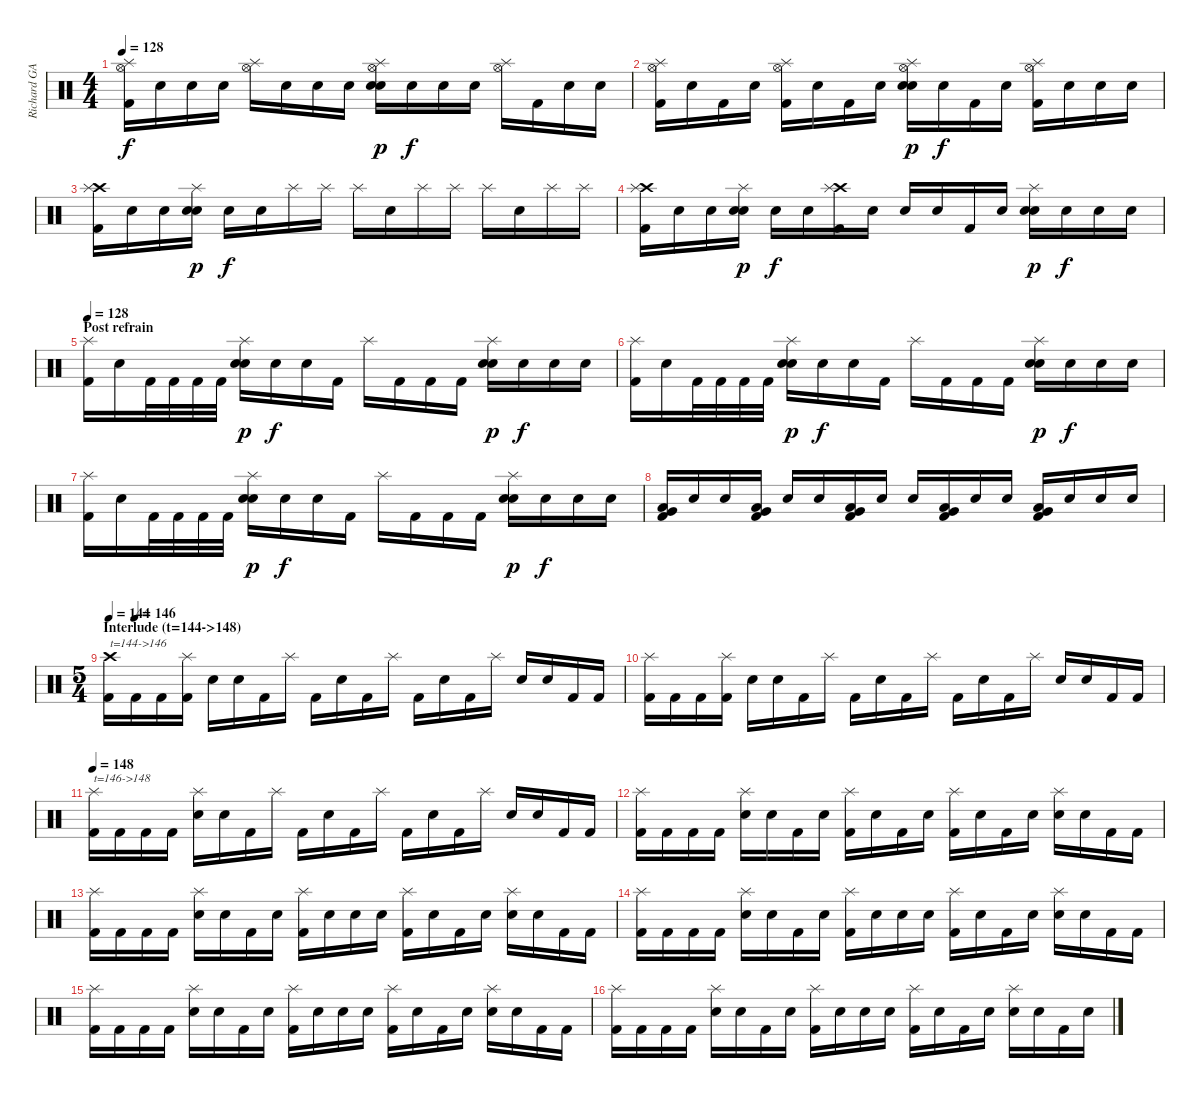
\track ("Richard GAMBA - Batterie" "Richard GA") {instrument percussion}
\staff {score}
\articulation defaults
\ts (4 4)
\tempo 128
\clef neutral
\ks c
("Hi-Hat (open)" "Splash (hit)" "Kick (hit) 2").16{dy f} "Snare (hit)".16 "Snare (hit)".16 "Snare (hit)".16 ("Hi-Hat (open)" "Splash (hit)").16 "Snare (hit)".16 "Snare (hit)".16 "Snare (hit)".16 ("Hi-Hat (open)" "Splash (hit)" "Electric Snare (hit)" "Snare (hit) 2").16{dy p} "Snare (hit)".16{dy f} "Snare (hit)".16 "Snare (hit)".16 ("Hi-Hat (open)" "Splash (hit)").16 "Kick (hit) 2".16 "Snare (hit)".16 "Snare (hit)".16 |
("Hi-Hat (open)" "Splash (hit)" "Kick (hit) 2").16 "Snare (hit)".16 "Kick (hit) 2".16 "Snare (hit)".16 ("Hi-Hat (open)" "Splash (hit)" "Kick (hit) 2").16 "Snare (hit)".16 "Kick (hit) 2".16 "Snare (hit)".16 ("Hi-Hat (open)" "Splash (hit)" "Electric Snare (hit)" "Snare (hit) 2").16{dy p} "Snare (hit)".16{dy f} "Kick (hit) 2".16 "Snare (hit)".16 ("Hi-Hat (open)" "Splash (hit)" "Kick (hit) 2").16 "Snare (hit)".16 "Snare (hit)".16 "Snare (hit)".16 |
("Crash high (hit)" "Splash (hit)" "Kick (hit) 2").16 "Snare (hit)".16 "Snare (hit)".16 ("Splash (hit)" "Electric Snare (hit)" "Snare (hit) 2").16{dy p} "Snare (hit)".16{dy f} "Snare (hit)".16 "Splash (hit)".16 "Splash (hit)".16 "Splash (hit)".16 "Snare (hit)".16 "Splash (hit)".16 "Splash (hit)".16 "Splash (hit)".16 "Snare (hit)".16 "Splash (hit)".16 "Splash (hit)".16 |
("Crash high (hit)" "Splash (hit)" "Kick (hit) 2").16 "Snare (hit)".16 "Snare (hit)".16 ("Splash (hit)" "Electric Snare (hit)" "Snare (hit) 2").16{dy p} "Snare (hit)".16{dy f} "Snare (hit)".16 ("Crash high (hit)" "Splash (hit)" "Kick (hit) 2").16 "Snare (hit)".16 "Snare (hit)".16 "Snare (hit)".16 "Kick (hit) 2".16 "Snare (hit)".16 ("Splash (hit)" "Electric Snare (hit)" "Snare (hit) 2").16{dy p} "Snare (hit)".16{dy f} "Snare (hit)".16 "Snare (hit)".16 |
\section ("" "Post refrain")
\tempo 128
("Splash (hit)" "Kick (hit) 2").16{balance 8} "Snare (hit)".16 "Kick (hit) 2".32 "Kick (hit) 2".32 "Kick (hit) 2".32 "Kick (hit) 2".32 ("Splash (hit)" "Electric Snare (hit)" "Snare (hit) 2").16{dy p} "Snare (hit)".16{dy f} "Snare (hit)".16 "Kick (hit) 2".16 "Splash (hit)".16 "Kick (hit) 2".16 "Kick (hit) 2".16 "Kick (hit) 2".16 ("Splash (hit)" "Electric Snare (hit)" "Snare (hit) 2").16{dy p} "Snare (hit)".16{dy f} "Snare (hit)".16 "Snare (hit)".16 |
("Splash (hit)" "Kick (hit) 2").16 "Snare (hit)".16 "Kick (hit) 2".32 "Kick (hit) 2".32 "Kick (hit) 2".32 "Kick (hit) 2".32 ("Splash (hit)" "Electric Snare (hit)" "Snare (hit) 2").16{dy p} "Snare (hit)".16{dy f} "Snare (hit)".16 "Kick (hit) 2".16 "Splash (hit)".16 "Kick (hit) 2".16 "Kick (hit) 2".16 "Kick (hit) 2".16 ("Splash (hit)" "Electric Snare (hit)" "Snare (hit) 2").16{dy p} "Snare (hit)".16{dy f} "Snare (hit)".16 "Snare (hit)".16 |
("Splash (hit)" "Kick (hit) 2").16 "Snare (hit)".16 "Kick (hit) 2".32 "Kick (hit) 2".32 "Kick (hit) 2".32 "Kick (hit) 2".32 ("Splash (hit)" "Electric Snare (hit)" "Snare (hit) 2").16{dy p} "Snare (hit)".16{dy f} "Snare (hit)".16 "Kick (hit) 2".16 "Splash (hit)".16 "Kick (hit) 2".16 "Kick (hit) 2".16 "Kick (hit) 2".16 ("Splash (hit)" "Electric Snare (hit)" "Snare (hit) 2").16{dy p} "Snare (hit)".16{dy f} "Snare (hit)".16 "Snare (hit)".16 |
("Low Tom (hit)" "Very Low Tom (hit)" "Kick (hit) 2").16 "Snare (hit)".16 "Snare (hit)".16 ("Low Tom (hit)" "Very Low Tom (hit)" "Kick (hit) 2").16 "Snare (hit)".16 "Snare (hit)".16 ("Low Tom (hit)" "Very Low Tom (hit)" "Kick (hit) 2").16 "Snare (hit)".16 "Snare (hit)".16 ("Low Tom (hit)" "Very Low Tom (hit)" "Kick (hit) 2").16 "Snare (hit)".16 "Snare (hit)".16 ("Low Tom (hit)" "Very Low Tom (hit)" "Kick (hit) 2").16 "Snare (hit)".16 "Snare (hit)".16 "Snare (hit)".16 |
\ts (5 4)
\section ("" "Interlude (t=144->148)")
\tempo 144
\tempo (146 0.05)
("Crash high (hit)" "Kick (hit) 2").16{txt "t=144->146"} "Kick (hit) 2".16 "Kick (hit) 2".16 ("Splash (hit)" "Kick (hit) 2").16 "Electric Snare (hit)".16 "Snare (hit)".16 "Kick (hit) 2".16 "Splash (hit)".16 "Kick (hit) 2".16 "Snare (hit)".16 "Kick (hit) 2".16 "Splash (hit)".16 "Kick (hit) 2".16 "Snare (hit)".16 "Kick (hit) 2".16 "Splash (hit)".16 "Electric Snare (hit)".16 "Snare (hit)".16 "Kick (hit) 2".16 "Kick (hit) 2".16 |
("Splash (hit)" "Kick (hit) 2").16 "Kick (hit) 2".16 "Kick (hit) 2".16 ("Splash (hit)" "Kick (hit) 2").16 "Electric Snare (hit)".16 "Snare (hit)".16 "Kick (hit) 2".16 "Splash (hit)".16 "Kick (hit) 2".16 "Snare (hit)".16 "Kick (hit) 2".16 "Splash (hit)".16 "Kick (hit) 2".16 "Snare (hit)".16 "Kick (hit) 2".16 "Splash (hit)".16 "Electric Snare (hit)".16 "Snare (hit)".16 "Kick (hit) 2".16 "Kick (hit) 2".16 |
\tempo 148
("Splash (hit)" "Kick (hit) 2").16{txt "t=146->148"} "Kick (hit) 2".16 "Kick (hit) 2".16 "Kick (hit) 2".16 ("Splash (hit)" "Electric Snare (hit)").16 "Snare (hit)".16 "Kick (hit) 2".16 "Splash (hit)".16 "Kick (hit) 2".16 "Snare (hit)".16 "Kick (hit) 2".16 "Splash (hit)".16 "Kick (hit) 2".16 "Snare (hit)".16 "Kick (hit) 2".16 "Splash (hit)".16 "Electric Snare (hit)".16 "Snare (hit)".16 "Kick (hit) 2".16 "Kick (hit) 2".16 |
("Splash (hit)" "Kick (hit) 2").16 "Kick (hit) 2".16 "Kick (hit) 2".16 "Kick (hit) 2".16 ("Splash (hit)" "Electric Snare (hit)").16 "Snare (hit)".16 "Kick (hit) 2".16 "Snare (hit)".16 ("Splash (hit)" "Kick (hit) 2").16 "Snare (hit)".16 "Kick (hit) 2".16 "Snare (hit)".16 ("Splash (hit)" "Kick (hit) 2").16 "Snare (hit)".16 "Kick (hit) 2".16 "Snare (hit)".16 ("Splash (hit)" "Electric Snare (hit)").16 "Snare (hit)".16 "Kick (hit) 2".16 "Kick (hit) 2".16 |
("Splash (hit)" "Kick (hit) 2").16 "Kick (hit) 2".16 "Kick (hit) 2".16 "Kick (hit) 2".16 ("Splash (hit)" "Electric Snare (hit)").16 "Snare (hit)".16 "Kick (hit) 2".16 "Snare (hit)".16 ("Splash (hit)" "Kick (hit) 2").16 "Snare (hit)".16 "Snare (hit)".16 "Snare (hit)".16 ("Splash (hit)" "Kick (hit) 2").16 "Snare (hit)".16 "Kick (hit) 2".16 "Snare (hit)".16 ("Splash (hit)" "Electric Snare (hit)").16 "Snare (hit)".16 "Kick (hit) 2".16 "Kick (hit) 2".16 |
("Splash (hit)" "Kick (hit) 2").16 "Kick (hit) 2".16 "Kick (hit) 2".16 "Kick (hit) 2".16 ("Splash (hit)" "Electric Snare (hit)").16 "Snare (hit)".16 "Kick (hit) 2".16 "Snare (hit)".16 ("Splash (hit)" "Kick (hit) 2").16 "Snare (hit)".16 "Snare (hit)".16 "Snare (hit)".16 ("Splash (hit)" "Kick (hit) 2").16 "Snare (hit)".16 "Kick (hit) 2".16 "Snare (hit)".16 ("Splash (hit)" "Electric Snare (hit)").16 "Snare (hit)".16 "Kick (hit) 2".16 "Kick (hit) 2".16 |
("Splash (hit)" "Kick (hit) 2").16 "Kick (hit) 2".16 "Kick (hit) 2".16 "Kick (hit) 2".16 ("Splash (hit)" "Electric Snare (hit)").16 "Snare (hit)".16 "Kick (hit) 2".16 "Snare (hit)".16 ("Splash (hit)" "Kick (hit) 2").16 "Snare (hit)".16 "Snare (hit)".16 "Snare (hit)".16 ("Splash (hit)" "Kick (hit) 2").16 "Snare (hit)".16 "Kick (hit) 2".16 "Snare (hit)".16 ("Splash (hit)" "Electric Snare (hit)").16 "Snare (hit)".16 "Kick (hit) 2".16 "Kick (hit) 2".16 |
("Splash (hit)" "Kick (hit) 2").16 "Kick (hit) 2".16 "Kick (hit) 2".16 "Kick (hit) 2".16 ("Splash (hit)" "Electric Snare (hit)").16 "Snare (hit)".16 "Kick (hit) 2".16 "Snare (hit)".16 ("Splash (hit)" "Kick (hit) 2").16 "Snare (hit)".16 "Snare (hit)".16 "Snare (hit)".16 ("Splash (hit)" "Kick (hit) 2").16 "Snare (hit)".16 "Kick (hit) 2".16 "Snare (hit)".16 ("Splash (hit)" "Electric Snare (hit)").16 "Snare (hit)".16 "Kick (hit) 2".16 "Snare (hit)".16
